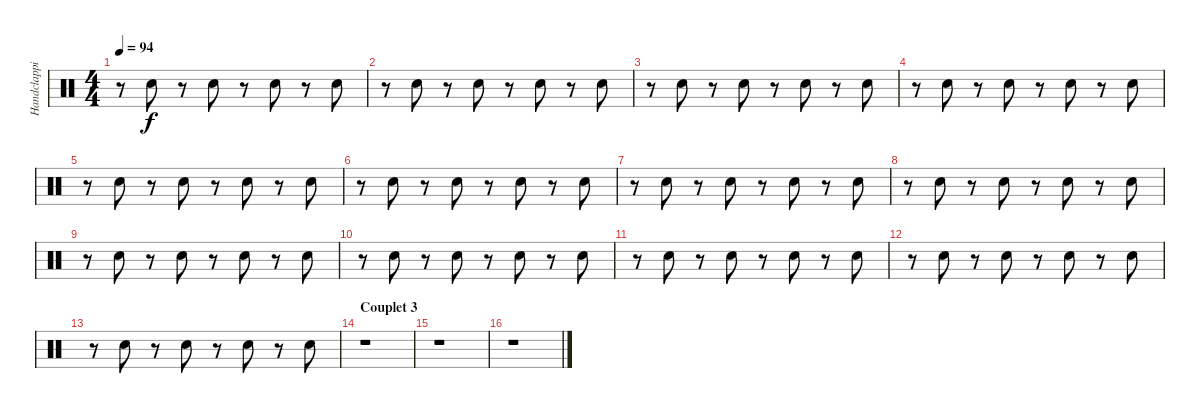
\track ("Handclapping" "Handclappi") {instrument percussion}
\staff {score}
\articulation defaults
\ts (4 4)
\tempo 94
\clef neutral
\ks c
r.8{dy f} "Hand Clap (hit)".8 r.8 "Hand Clap (hit)".8 r.8 "Hand Clap (hit)".8 r.8 "Hand Clap (hit)".8 |
r.8 "Hand Clap (hit)".8 r.8 "Hand Clap (hit)".8 r.8 "Hand Clap (hit)".8 r.8 "Hand Clap (hit)".8 |
r.8 "Hand Clap (hit)".8 r.8 "Hand Clap (hit)".8 r.8 "Hand Clap (hit)".8 r.8 "Hand Clap (hit)".8 |
r.8 "Hand Clap (hit)".8 r.8 "Hand Clap (hit)".8 r.8 "Hand Clap (hit)".8 r.8 "Hand Clap (hit)".8 |
r.8 "Hand Clap (hit)".8 r.8 "Hand Clap (hit)".8 r.8 "Hand Clap (hit)".8 r.8 "Hand Clap (hit)".8 |
r.8 "Hand Clap (hit)".8 r.8 "Hand Clap (hit)".8 r.8 "Hand Clap (hit)".8 r.8 "Hand Clap (hit)".8 |
r.8 "Hand Clap (hit)".8 r.8 "Hand Clap (hit)".8 r.8 "Hand Clap (hit)".8 r.8 "Hand Clap (hit)".8 |
r.8 "Hand Clap (hit)".8 r.8 "Hand Clap (hit)".8 r.8 "Hand Clap (hit)".8 r.8 "Hand Clap (hit)".8 |
r.8 "Hand Clap (hit)".8 r.8 "Hand Clap (hit)".8 r.8 "Hand Clap (hit)".8 r.8 "Hand Clap (hit)".8 |
r.8 "Hand Clap (hit)".8 r.8 "Hand Clap (hit)".8 r.8 "Hand Clap (hit)".8 r.8 "Hand Clap (hit)".8 |
r.8 "Hand Clap (hit)".8 r.8 "Hand Clap (hit)".8 r.8 "Hand Clap (hit)".8 r.8 "Hand Clap (hit)".8 |
r.8 "Hand Clap (hit)".8 r.8 "Hand Clap (hit)".8 r.8 "Hand Clap (hit)".8 r.8 "Hand Clap (hit)".8 |
r.8 "Hand Clap (hit)".8 r.8 "Hand Clap (hit)".8 r.8 "Hand Clap (hit)".8 r.8 "Hand Clap (hit)".8 |
\section ("" "Couplet 3")
r.1 |
r.1 |
r.1
